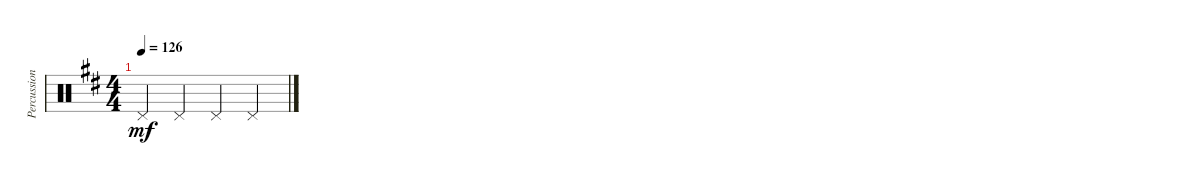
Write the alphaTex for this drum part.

\track ("Percussion" "Percussion") {instrument percussion}
\staff {score}
\articulation defaults
\ts (4 4)
\tempo 126
\clef neutral
\ks d "Pedal Hi-Hat (hit)".4{dy mf} "Pedal Hi-Hat (hit)".4 "Pedal Hi-Hat (hit)".4 "Pedal Hi-Hat (hit)".4
